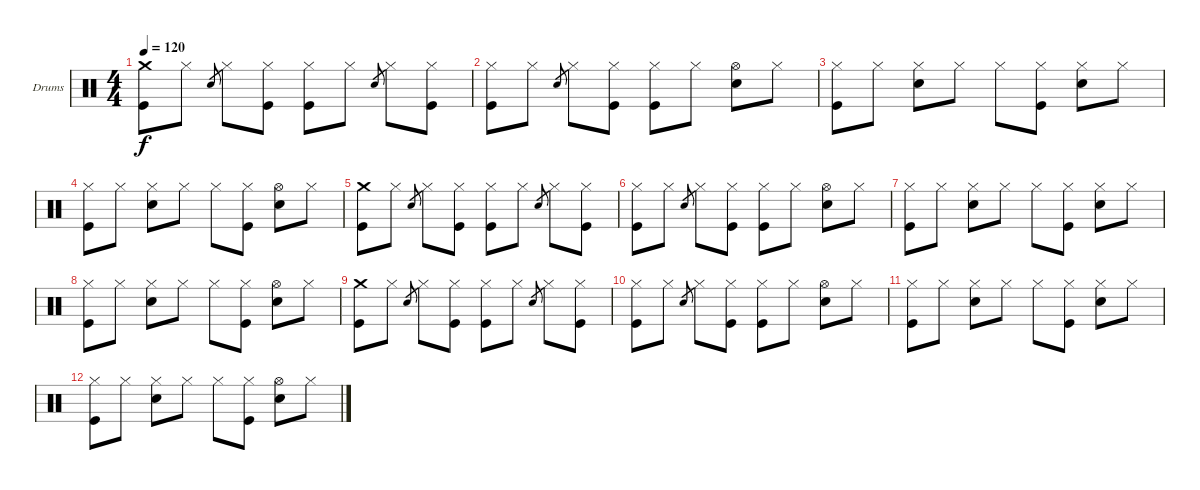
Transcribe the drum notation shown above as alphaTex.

\defaultSystemsLayout 4
\bracketExtendMode groupsimilarinstruments
\firstSystemTrackNameOrientation horizontal
\otherSystemsTrackNameOrientation horizontal
\track ("Drums" "Drums") {instrument percussion}
\staff {score}
\articulation defaults
\ts (4 4)
\tempo 120
\clef neutral
\ks c
("Kick (hit)" "Crash medium (hit)").8{dy f} "Hi-Hat (closed)".8 "Snare (hit) 2".8{gr} "Hi-Hat (closed)".8 ("Hi-Hat (closed)" "Kick (hit)").8 ("Hi-Hat (closed)" "Kick (hit)").8 "Hi-Hat (closed)".8 "Snare (hit) 2".8{gr} "Hi-Hat (closed)".8 ("Hi-Hat (closed)" "Kick (hit)").8 |
("Kick (hit)" "Hi-Hat (closed)").8 "Hi-Hat (closed)".8 "Snare (hit) 2".8{gr} "Hi-Hat (closed)".8 ("Hi-Hat (closed)" "Kick (hit)").8 ("Hi-Hat (closed)" "Kick (hit)").8 "Hi-Hat (closed)".8 ("Snare (hit) 2" "Hi-Hat (open)").8 "Hi-Hat (closed)".8 |
("Kick (hit)" "Hi-Hat (closed)").8 "Hi-Hat (closed)".8 ("Snare (hit) 2" "Hi-Hat (closed)").8 "Hi-Hat (closed)".8 "Hi-Hat (closed)".8 ("Kick (hit)" "Hi-Hat (closed)").8 ("Snare (hit) 2" "Hi-Hat (closed)").8 "Hi-Hat (closed)".8 |
("Kick (hit)" "Hi-Hat (closed)").8 "Hi-Hat (closed)".8 ("Snare (hit) 2" "Hi-Hat (closed)").8 "Hi-Hat (closed)".8 "Hi-Hat (closed)".8 ("Kick (hit)" "Hi-Hat (closed)").8 ("Snare (hit) 2" "Hi-Hat (open)").8 "Hi-Hat (closed)".8 |
("Kick (hit)" "Crash medium (hit)").8 "Hi-Hat (closed)".8 "Snare (hit) 2".8{gr} "Hi-Hat (closed)".8 ("Hi-Hat (closed)" "Kick (hit)").8 ("Hi-Hat (closed)" "Kick (hit)").8 "Hi-Hat (closed)".8 "Snare (hit) 2".8{gr} "Hi-Hat (closed)".8 ("Hi-Hat (closed)" "Kick (hit)").8 |
("Kick (hit)" "Hi-Hat (closed)").8 "Hi-Hat (closed)".8 "Snare (hit) 2".8{gr} "Hi-Hat (closed)".8 ("Hi-Hat (closed)" "Kick (hit)").8 ("Hi-Hat (closed)" "Kick (hit)").8 "Hi-Hat (closed)".8 ("Snare (hit) 2" "Hi-Hat (open)").8 "Hi-Hat (closed)".8 |
("Kick (hit)" "Hi-Hat (closed)").8 "Hi-Hat (closed)".8 ("Snare (hit) 2" "Hi-Hat (closed)").8 "Hi-Hat (closed)".8 "Hi-Hat (closed)".8 ("Kick (hit)" "Hi-Hat (closed)").8 ("Snare (hit) 2" "Hi-Hat (closed)").8 "Hi-Hat (closed)".8 |
("Kick (hit)" "Hi-Hat (closed)").8 "Hi-Hat (closed)".8 ("Snare (hit) 2" "Hi-Hat (closed)").8 "Hi-Hat (closed)".8 "Hi-Hat (closed)".8 ("Kick (hit)" "Hi-Hat (closed)").8 ("Snare (hit) 2" "Hi-Hat (open)").8 "Hi-Hat (closed)".8 |
("Kick (hit)" "Crash medium (hit)").8 "Hi-Hat (closed)".8 "Snare (hit) 2".8{gr} "Hi-Hat (closed)".8 ("Hi-Hat (closed)" "Kick (hit)").8 ("Hi-Hat (closed)" "Kick (hit)").8 "Hi-Hat (closed)".8 "Snare (hit) 2".8{gr} "Hi-Hat (closed)".8 ("Hi-Hat (closed)" "Kick (hit)").8 |
("Kick (hit)" "Hi-Hat (closed)").8 "Hi-Hat (closed)".8 "Snare (hit) 2".8{gr} "Hi-Hat (closed)".8 ("Hi-Hat (closed)" "Kick (hit)").8 ("Hi-Hat (closed)" "Kick (hit)").8 "Hi-Hat (closed)".8 ("Snare (hit) 2" "Hi-Hat (open)").8 "Hi-Hat (closed)".8 |
("Kick (hit)" "Hi-Hat (closed)").8 "Hi-Hat (closed)".8 ("Snare (hit) 2" "Hi-Hat (closed)").8 "Hi-Hat (closed)".8 "Hi-Hat (closed)".8 ("Kick (hit)" "Hi-Hat (closed)").8 ("Snare (hit) 2" "Hi-Hat (closed)").8 "Hi-Hat (closed)".8 |
("Kick (hit)" "Hi-Hat (closed)").8 "Hi-Hat (closed)".8 ("Snare (hit) 2" "Hi-Hat (closed)").8 "Hi-Hat (closed)".8 "Hi-Hat (closed)".8 ("Kick (hit)" "Hi-Hat (closed)").8 ("Snare (hit) 2" "Hi-Hat (open)").8 "Hi-Hat (closed)".8
